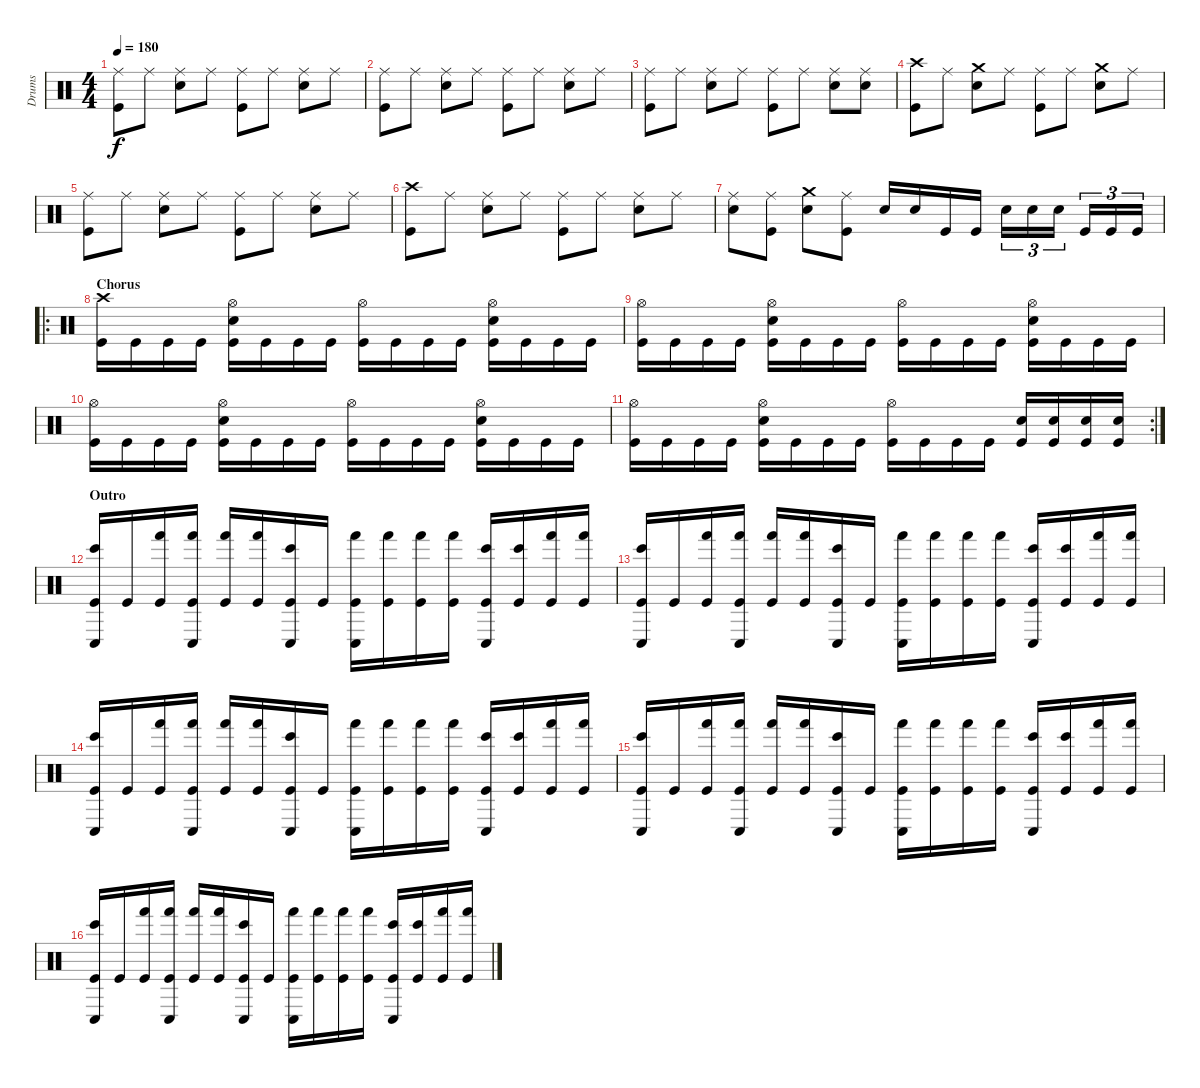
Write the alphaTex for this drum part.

\track ("Drums" "Drums") {instrument percussion}
\staff {score}
\articulation defaults
\ts (4 4)
\tempo 180
\clef neutral
\ks c
("Ride (middle)" "Kick (hit)").8{dy f} "Ride (middle)".8 ("Ride (middle)" "Snare (hit) 2").8 "Ride (middle)".8 ("Ride (middle)" "Kick (hit)").8 "Ride (middle)".8 ("Ride (middle)" "Snare (hit) 2").8 "Ride (middle)".8 |
("Ride (middle)" "Kick (hit)").8 "Ride (middle)".8 ("Ride (middle)" "Snare (hit) 2").8 "Ride (middle)".8 ("Ride (middle)" "Kick (hit)").8 "Ride (middle)".8 ("Ride (middle)" "Snare (hit) 2").8 "Ride (middle)".8 |
("Ride (middle)" "Kick (hit)").8 "Ride (middle)".8 ("Ride (middle)" "Snare (hit) 2").8 "Ride (middle)".8 ("Ride (middle)" "Kick (hit)").8 "Ride (middle)".8 ("Ride (middle)" "Snare (hit) 2").8 ("Ride (middle)" "Snare (hit) 2").8 |
("Crash high (hit)" "Kick (hit)").8 "Ride (middle)".8 ("Crash medium (hit)" "Snare (hit) 2").8 "Ride (middle)".8 ("Ride (middle)" "Kick (hit)").8 "Ride (middle)".8 ("Crash medium (hit)" "Snare (hit) 2").8 "Ride (middle)".8 |
("Ride (middle)" "Kick (hit)").8 "Ride (middle)".8 ("Ride (middle)" "Snare (hit) 2").8 "Ride (middle)".8 ("Ride (middle)" "Kick (hit)").8 "Ride (middle)".8 ("Ride (middle)" "Snare (hit) 2").8 "Ride (middle)".8 |
("Crash high (hit)" "Kick (hit)").8 "Ride (middle)".8 ("Ride (middle)" "Snare (hit) 2").8 "Ride (middle)".8 ("Ride (middle)" "Kick (hit)").8 "Ride (middle)".8 ("Ride (middle)" "Snare (hit) 2").8 "Ride (middle)".8 |
("Ride (middle)" "Snare (hit) 2").8 ("Ride (middle)" "Kick (hit)").8 ("Crash medium (hit)" "Snare (hit) 2").8 ("Ride (middle)" "Kick (hit)").8 "Snare (hit) 2".16 "Snare (hit) 2".16 "Kick (hit)".16 "Kick (hit)".16 "Snare (hit) 2".16{tu (3 2)} "Snare (hit) 2".16{tu (3 2)} "Snare (hit) 2".16{tu (3 2)} "Kick (hit)".16{tu (3 2)} "Kick (hit)".16{tu (3 2)} "Kick (hit)".16{tu (3 2)} |
\ro
\section ("" "Chorus")
("Crash high (hit)" "Kick (hit)").16 "Kick (hit)".16 "Kick (hit)".16 "Kick (hit)".16 ("Hi-Hat (open)" "Snare (hit) 2" "Kick (hit)").16 "Kick (hit)".16 "Kick (hit)".16 "Kick (hit)".16 ("Hi-Hat (open)" "Kick (hit)").16 "Kick (hit)".16 "Kick (hit)".16 "Kick (hit)".16 ("Hi-Hat (open)" "Snare (hit) 2" "Kick (hit)").16 "Kick (hit)".16 "Kick (hit)".16 "Kick (hit)".16 |
("Hi-Hat (open)" "Kick (hit)").16 "Kick (hit)".16 "Kick (hit)".16 "Kick (hit)".16 ("Hi-Hat (open)" "Snare (hit) 2" "Kick (hit)").16 "Kick (hit)".16 "Kick (hit)".16 "Kick (hit)".16 ("Hi-Hat (open)" "Kick (hit)").16 "Kick (hit)".16 "Kick (hit)".16 "Kick (hit)".16 ("Hi-Hat (open)" "Snare (hit) 2" "Kick (hit)").16 "Kick (hit)".16 "Kick (hit)".16 "Kick (hit)".16 |
("Hi-Hat (open)" "Kick (hit)").16 "Kick (hit)".16 "Kick (hit)".16 "Kick (hit)".16 ("Hi-Hat (open)" "Snare (hit) 2" "Kick (hit)").16 "Kick (hit)".16 "Kick (hit)".16 "Kick (hit)".16 ("Hi-Hat (open)" "Kick (hit)").16 "Kick (hit)".16 "Kick (hit)".16 "Kick (hit)".16 ("Hi-Hat (open)" "Snare (hit) 2" "Kick (hit)").16 "Kick (hit)".16 "Kick (hit)".16 "Kick (hit)".16 |
\rc 2
("Hi-Hat (open)" "Kick (hit)").16 "Kick (hit)".16 "Kick (hit)".16 "Kick (hit)".16 ("Hi-Hat (open)" "Snare (hit) 2" "Kick (hit)").16 "Kick (hit)".16 "Kick (hit)".16 "Kick (hit)".16 ("Hi-Hat (open)" "Kick (hit)").16 "Kick (hit)".16 "Kick (hit)".16 "Kick (hit)".16 ("Snare (hit) 2" "Kick (hit)").16 ("Snare (hit) 2" "Kick (hit)").16 ("Snare (hit) 2" "Kick (hit)").16 ("Snare (hit) 2" "Kick (hit)").16 |
\section ("" "Outro")
("Bongo High (hit)" "Conga low (hit)" "Kick (hit)").16 "Kick (hit)".16 ("Hand (hit)" "Kick (hit)").16 ("Hand (hit)" "Conga low (hit)" "Kick (hit)").16 ("Hand (hit)" "Kick (hit)").16 ("Hand (hit)" "Kick (hit)").16 ("Bongo High (hit)" "Conga low (hit)" "Kick (hit)").16 "Kick (hit)".16 ("Hand (hit)" "Conga low (hit)" "Kick (hit)").16 ("Hand (hit)" "Kick (hit)").16 ("Hand (hit)" "Kick (hit)").16 ("Hand (hit)" "Kick (hit)").16 ("Bongo High (hit)" "Conga low (hit)" "Kick (hit)").16 ("Bongo High (hit)" "Kick (hit)").16 ("Hand (hit)" "Kick (hit)").16 ("Hand (hit)" "Kick (hit)").16 |
("Bongo High (hit)" "Conga low (hit)" "Kick (hit)").16 "Kick (hit)".16 ("Hand (hit)" "Kick (hit)").16 ("Hand (hit)" "Conga low (hit)" "Kick (hit)").16 ("Hand (hit)" "Kick (hit)").16 ("Hand (hit)" "Kick (hit)").16 ("Bongo High (hit)" "Conga low (hit)" "Kick (hit)").16 "Kick (hit)".16 ("Hand (hit)" "Conga low (hit)" "Kick (hit)").16 ("Hand (hit)" "Kick (hit)").16 ("Hand (hit)" "Kick (hit)").16 ("Hand (hit)" "Kick (hit)").16 ("Bongo High (hit)" "Conga low (hit)" "Kick (hit)").16 ("Bongo High (hit)" "Kick (hit)").16 ("Hand (hit)" "Kick (hit)").16 ("Hand (hit)" "Kick (hit)").16 |
("Bongo High (hit)" "Conga low (hit)" "Kick (hit)").16 "Kick (hit)".16 ("Hand (hit)" "Kick (hit)").16 ("Hand (hit)" "Conga low (hit)" "Kick (hit)").16 ("Hand (hit)" "Kick (hit)").16 ("Hand (hit)" "Kick (hit)").16 ("Bongo High (hit)" "Conga low (hit)" "Kick (hit)").16 "Kick (hit)".16 ("Hand (hit)" "Conga low (hit)" "Kick (hit)").16 ("Hand (hit)" "Kick (hit)").16 ("Hand (hit)" "Kick (hit)").16 ("Hand (hit)" "Kick (hit)").16 ("Bongo High (hit)" "Conga low (hit)" "Kick (hit)").16 ("Bongo High (hit)" "Kick (hit)").16 ("Hand (hit)" "Kick (hit)").16 ("Hand (hit)" "Kick (hit)").16 |
("Bongo High (hit)" "Conga low (hit)" "Kick (hit)").16 "Kick (hit)".16 ("Hand (hit)" "Kick (hit)").16 ("Hand (hit)" "Conga low (hit)" "Kick (hit)").16 ("Hand (hit)" "Kick (hit)").16 ("Hand (hit)" "Kick (hit)").16 ("Bongo High (hit)" "Conga low (hit)" "Kick (hit)").16 "Kick (hit)".16 ("Hand (hit)" "Conga low (hit)" "Kick (hit)").16 ("Hand (hit)" "Kick (hit)").16 ("Hand (hit)" "Kick (hit)").16 ("Hand (hit)" "Kick (hit)").16 ("Bongo High (hit)" "Conga low (hit)" "Kick (hit)").16 ("Bongo High (hit)" "Kick (hit)").16 ("Hand (hit)" "Kick (hit)").16 ("Hand (hit)" "Kick (hit)").16 |
("Bongo High (hit)" "Conga low (hit)" "Kick (hit)").16 "Kick (hit)".16 ("Hand (hit)" "Kick (hit)").16 ("Hand (hit)" "Conga low (hit)" "Kick (hit)").16 ("Hand (hit)" "Kick (hit)").16 ("Hand (hit)" "Kick (hit)").16 ("Bongo High (hit)" "Conga low (hit)" "Kick (hit)").16 "Kick (hit)".16 ("Hand (hit)" "Conga low (hit)" "Kick (hit)").16 ("Hand (hit)" "Kick (hit)").16 ("Hand (hit)" "Kick (hit)").16 ("Hand (hit)" "Kick (hit)").16 ("Bongo High (hit)" "Conga low (hit)" "Kick (hit)").16 ("Bongo High (hit)" "Kick (hit)").16 ("Hand (hit)" "Kick (hit)").16 ("Hand (hit)" "Kick (hit)").16
